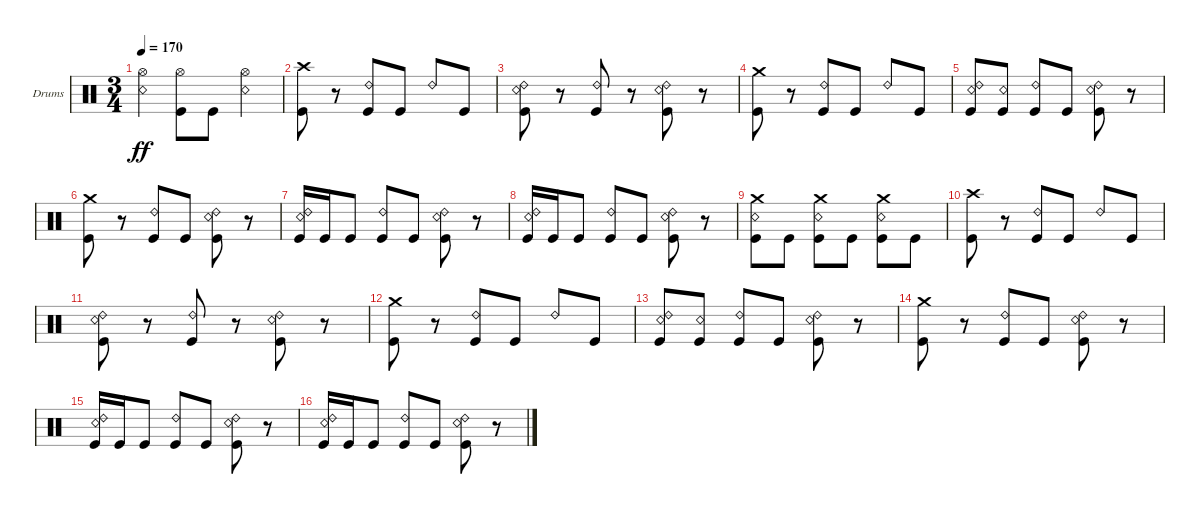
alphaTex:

\bracketExtendMode groupsimilarinstruments
\firstSystemTrackNameOrientation horizontal
\otherSystemsTrackNameOrientation horizontal
\track ("Kaleb - Drums" "Drums") {instrument percussion}
\staff {score}
\articulation defaults
\ts (3 4)
\tempo 170
\clef neutral
\ks c
("Hi-Hat (open)" "Snare (rim shot)").4{dy ff} ("Kick (hit)" "Hi-Hat (open)").8 "Kick (hit)".8 ("Hi-Hat (open)" "Snare (rim shot)").4 |
("Kick (hit)" "Crash high (hit)").8 r.8 ("Kick (hit)" "Ride (bell) 2").8 "Kick (hit)".8 "Ride (bell) 2".8 "Kick (hit)".8 |
("Kick (hit)" "Ride (bell) 2" "Snare (rim shot)").8 r.8 ("Kick (hit)" "Ride (bell) 2").8 r.8 ("Kick (hit)" "Ride (bell) 2" "Snare (rim shot)").8 r.8 |
("Kick (hit)" "Crash medium (hit)").8 r.8 ("Kick (hit)" "Ride (bell) 2").8 "Kick (hit)".8 "Ride (bell) 2".8 "Kick (hit)".8 |
("Kick (hit)" "Ride (bell) 2" "Snare (rim shot)").8 ("Kick (hit)" "Snare (rim shot)").8 ("Kick (hit)" "Ride (bell) 2").8 "Kick (hit)".8 ("Kick (hit)" "Ride (bell) 2" "Snare (rim shot)").8 r.8 |
("Kick (hit)" "Crash medium (hit)").8 r.8 ("Kick (hit)" "Ride (bell) 2").8 "Kick (hit)".8 ("Kick (hit)" "Snare (rim shot)" "Ride (bell) 2").8 r.8 |
("Kick (hit)" "Snare (rim shot)" "Ride (bell) 2").16 "Kick (hit)".16 "Kick (hit)".8 ("Kick (hit)" "Ride (bell) 2").8 "Kick (hit)".8 ("Kick (hit)" "Snare (rim shot)" "Ride (bell) 2").8 r.8 |
("Kick (hit)" "Snare (rim shot)" "Ride (bell) 2").16 "Kick (hit)".16 "Kick (hit)".8 ("Kick (hit)" "Ride (bell) 2").8 "Kick (hit)".8 ("Kick (hit)" "Snare (rim shot)" "Ride (bell) 2").8 r.8 |
("Kick (hit)" "Crash medium (hit)" "Snare (rim shot)").8 "Kick (hit)".8 ("Kick (hit)" "Crash medium (hit)" "Snare (rim shot)").8 "Kick (hit)".8 ("Kick (hit)" "Crash medium (hit)" "Snare (rim shot)").8 "Kick (hit)".8 |
("Kick (hit)" "Crash high (hit)").8 r.8 ("Kick (hit)" "Ride (bell) 2").8 "Kick (hit)".8 "Ride (bell) 2".8 "Kick (hit)".8 |
("Kick (hit)" "Ride (bell) 2" "Snare (rim shot)").8 r.8 ("Kick (hit)" "Ride (bell) 2").8 r.8 ("Kick (hit)" "Ride (bell) 2" "Snare (rim shot)").8 r.8 |
("Kick (hit)" "Crash medium (hit)").8 r.8 ("Kick (hit)" "Ride (bell) 2").8 "Kick (hit)".8 "Ride (bell) 2".8 "Kick (hit)".8 |
("Kick (hit)" "Ride (bell) 2" "Snare (rim shot)").8 ("Kick (hit)" "Snare (rim shot)").8 ("Kick (hit)" "Ride (bell) 2").8 "Kick (hit)".8 ("Kick (hit)" "Ride (bell) 2" "Snare (rim shot)").8 r.8 |
("Kick (hit)" "Crash medium (hit)").8 r.8 ("Kick (hit)" "Ride (bell) 2").8 "Kick (hit)".8 ("Kick (hit)" "Snare (rim shot)" "Ride (bell) 2").8 r.8 |
("Kick (hit)" "Snare (rim shot)" "Ride (bell) 2").16 "Kick (hit)".16 "Kick (hit)".8 ("Kick (hit)" "Ride (bell) 2").8 "Kick (hit)".8 ("Kick (hit)" "Snare (rim shot)" "Ride (bell) 2").8 r.8 |
("Kick (hit)" "Snare (rim shot)" "Ride (bell) 2").16 "Kick (hit)".16 "Kick (hit)".8 ("Kick (hit)" "Ride (bell) 2").8 "Kick (hit)".8 ("Kick (hit)" "Snare (rim shot)" "Ride (bell) 2").8 r.8
